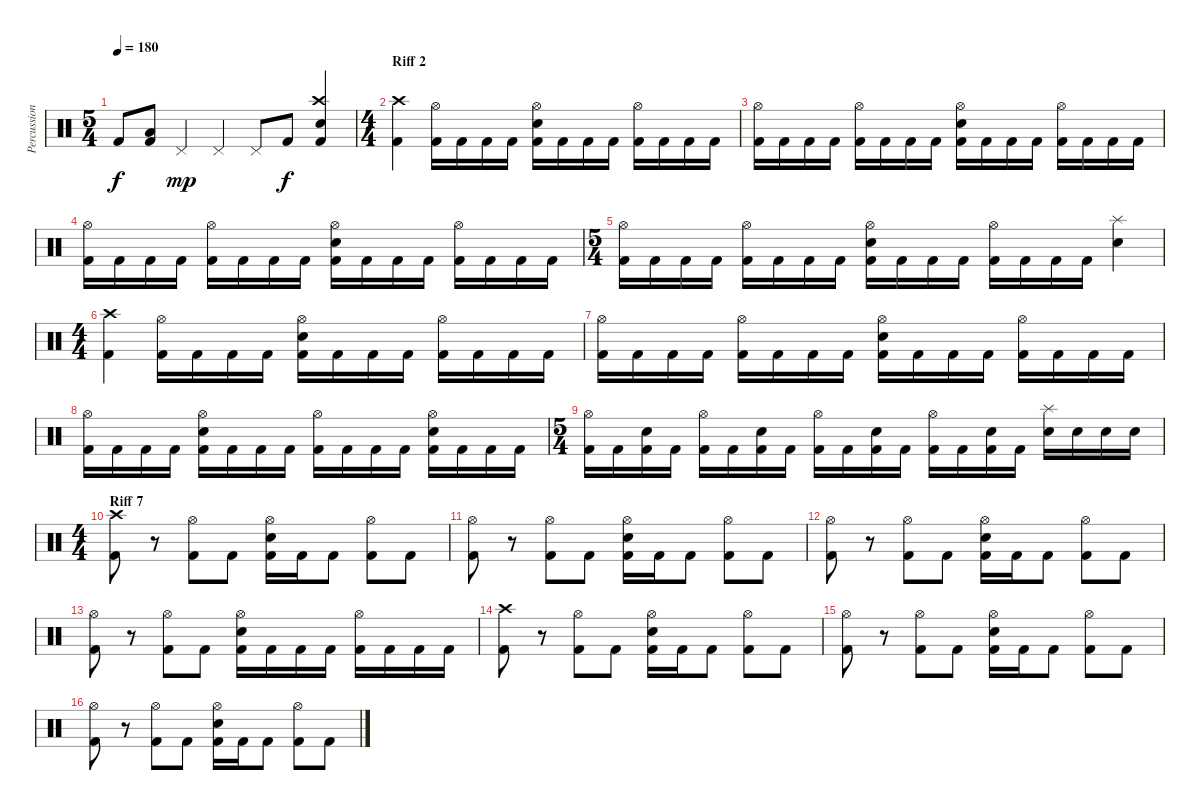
\track ("Percussion" "Percussion") {instrument percussion}
\staff {score}
\articulation defaults
\ts (5 4)
\tempo 180
\clef neutral
\ks c "Kick (hit) 2".8{dy f}
("Low Floor Tom (hit)" "Kick (hit) 2").8 "Pedal Hi-Hat (hit)".4{dy mp} "Pedal Hi-Hat (hit)".4 "Pedal Hi-Hat (hit)".8 "Kick (hit) 2".8{dy f} ("Crash high (hit)" "Electric Snare (hit)" "Kick (hit) 2").4 |
\ts (4 4)
\section ("" "Riff 2")
("Crash high (hit)" "Kick (hit) 2").4 ("Hi-Hat (open)" "Kick (hit) 2").16 "Kick (hit) 2".16 "Kick (hit) 2".16 "Kick (hit) 2".16 ("Hi-Hat (open)" "Electric Snare (hit)" "Kick (hit) 2").16 "Kick (hit) 2".16 "Kick (hit) 2".16 "Kick (hit) 2".16 ("Hi-Hat (open)" "Kick (hit) 2").16 "Kick (hit) 2".16 "Kick (hit) 2".16 "Kick (hit) 2".16 |
("Hi-Hat (open)" "Kick (hit) 2").16 "Kick (hit) 2".16 "Kick (hit) 2".16 "Kick (hit) 2".16 ("Hi-Hat (open)" "Kick (hit) 2").16 "Kick (hit) 2".16 "Kick (hit) 2".16 "Kick (hit) 2".16 ("Hi-Hat (open)" "Electric Snare (hit)" "Kick (hit) 2").16 "Kick (hit) 2".16 "Kick (hit) 2".16 "Kick (hit) 2".16 ("Hi-Hat (open)" "Kick (hit) 2").16 "Kick (hit) 2".16 "Kick (hit) 2".16 "Kick (hit) 2".16 |
("Hi-Hat (open)" "Kick (hit) 2").16 "Kick (hit) 2".16 "Kick (hit) 2".16 "Kick (hit) 2".16 ("Hi-Hat (open)" "Kick (hit) 2").16 "Kick (hit) 2".16 "Kick (hit) 2".16 "Kick (hit) 2".16 ("Hi-Hat (open)" "Electric Snare (hit)" "Kick (hit) 2").16 "Kick (hit) 2".16 "Kick (hit) 2".16 "Kick (hit) 2".16 ("Hi-Hat (open)" "Kick (hit) 2").16 "Kick (hit) 2".16 "Kick (hit) 2".16 "Kick (hit) 2".16 |
\ts (5 4)
("Hi-Hat (open)" "Kick (hit) 2").16 "Kick (hit) 2".16 "Kick (hit) 2".16 "Kick (hit) 2".16 ("Hi-Hat (open)" "Kick (hit) 2").16 "Kick (hit) 2".16 "Kick (hit) 2".16 "Kick (hit) 2".16 ("Hi-Hat (open)" "Electric Snare (hit)" "Kick (hit) 2").16 "Kick (hit) 2".16 "Kick (hit) 2".16 "Kick (hit) 2".16 ("Hi-Hat (open)" "Kick (hit) 2").16 "Kick (hit) 2".16 "Kick (hit) 2".16 "Kick (hit) 2".16 ("Splash (hit)" "Electric Snare (hit)").4 |
\ts (4 4)
("Crash high (hit)" "Kick (hit) 2").4 ("Hi-Hat (open)" "Kick (hit) 2").16 "Kick (hit) 2".16 "Kick (hit) 2".16 "Kick (hit) 2".16 ("Hi-Hat (open)" "Electric Snare (hit)" "Kick (hit) 2").16 "Kick (hit) 2".16 "Kick (hit) 2".16 "Kick (hit) 2".16 ("Hi-Hat (open)" "Kick (hit) 2").16 "Kick (hit) 2".16 "Kick (hit) 2".16 "Kick (hit) 2".16 |
("Hi-Hat (open)" "Kick (hit) 2").16 "Kick (hit) 2".16 "Kick (hit) 2".16 "Kick (hit) 2".16 ("Hi-Hat (open)" "Kick (hit) 2").16 "Kick (hit) 2".16 "Kick (hit) 2".16 "Kick (hit) 2".16 ("Hi-Hat (open)" "Electric Snare (hit)" "Kick (hit) 2").16 "Kick (hit) 2".16 "Kick (hit) 2".16 "Kick (hit) 2".16 ("Hi-Hat (open)" "Kick (hit) 2").16 "Kick (hit) 2".16 "Kick (hit) 2".16 "Kick (hit) 2".16 |
("Hi-Hat (open)" "Kick (hit) 2").16 "Kick (hit) 2".16 "Kick (hit) 2".16 "Kick (hit) 2".16 ("Hi-Hat (open)" "Electric Snare (hit)" "Kick (hit) 2").16 "Kick (hit) 2".16 "Kick (hit) 2".16 "Kick (hit) 2".16 ("Hi-Hat (open)" "Kick (hit) 2").16 "Kick (hit) 2".16 "Kick (hit) 2".16 "Kick (hit) 2".16 ("Hi-Hat (open)" "Electric Snare (hit)" "Kick (hit) 2").16 "Kick (hit) 2".16 "Kick (hit) 2".16 "Kick (hit) 2".16 |
\ts (5 4)
("Hi-Hat (open)" "Kick (hit) 2").16 "Kick (hit) 2".16 ("Electric Snare (hit)" "Kick (hit) 2").16 "Kick (hit) 2".16 ("Hi-Hat (open)" "Kick (hit) 2").16 "Kick (hit) 2".16 ("Electric Snare (hit)" "Kick (hit) 2").16 "Kick (hit) 2".16 ("Hi-Hat (open)" "Kick (hit) 2").16 "Kick (hit) 2".16 ("Electric Snare (hit)" "Kick (hit) 2").16 "Kick (hit) 2".16 ("Hi-Hat (open)" "Kick (hit) 2").16 "Kick (hit) 2".16 ("Electric Snare (hit)" "Kick (hit) 2").16 "Kick (hit) 2".16 ("Splash (hit)" "Electric Snare (hit)").16 "Electric Snare (hit)".16 "Electric Snare (hit)".16 "Electric Snare (hit)".16 |
\ts (4 4)
\section ("" "Riff 7")
("Crash high (hit)" "Kick (hit) 2").8 r.8 ("Hi-Hat (open)" "Kick (hit) 2").8 "Kick (hit) 2".8 ("Hi-Hat (open)" "Electric Snare (hit)" "Kick (hit) 2").16 "Kick (hit) 2".16 "Kick (hit) 2".8 ("Hi-Hat (open)" "Kick (hit) 2").8 "Kick (hit) 2".8 |
("Hi-Hat (open)" "Kick (hit) 2").8 r.8 ("Hi-Hat (open)" "Kick (hit) 2").8 "Kick (hit) 2".8 ("Hi-Hat (open)" "Electric Snare (hit)" "Kick (hit) 2").16 "Kick (hit) 2".16 "Kick (hit) 2".8 ("Hi-Hat (open)" "Kick (hit) 2").8 "Kick (hit) 2".8 |
("Hi-Hat (open)" "Kick (hit) 2").8 r.8 ("Hi-Hat (open)" "Kick (hit) 2").8 "Kick (hit) 2".8 ("Hi-Hat (open)" "Electric Snare (hit)" "Kick (hit) 2").16 "Kick (hit) 2".16 "Kick (hit) 2".8 ("Hi-Hat (open)" "Kick (hit) 2").8 "Kick (hit) 2".8 |
("Hi-Hat (open)" "Kick (hit) 2").8 r.8 ("Hi-Hat (open)" "Kick (hit) 2").8 "Kick (hit) 2".8 ("Hi-Hat (open)" "Electric Snare (hit)" "Kick (hit) 2").16 "Kick (hit) 2".16 "Kick (hit) 2".16 "Kick (hit) 2".16 ("Hi-Hat (open)" "Kick (hit) 2").16 "Kick (hit) 2".16 "Kick (hit) 2".16 "Kick (hit) 2".16 |
("Crash high (hit)" "Kick (hit) 2").8 r.8 ("Hi-Hat (open)" "Kick (hit) 2").8 "Kick (hit) 2".8 ("Hi-Hat (open)" "Electric Snare (hit)" "Kick (hit) 2").16 "Kick (hit) 2".16 "Kick (hit) 2".8 ("Hi-Hat (open)" "Kick (hit) 2").8 "Kick (hit) 2".8 |
("Hi-Hat (open)" "Kick (hit) 2").8 r.8 ("Hi-Hat (open)" "Kick (hit) 2").8 "Kick (hit) 2".8 ("Hi-Hat (open)" "Electric Snare (hit)" "Kick (hit) 2").16 "Kick (hit) 2".16 "Kick (hit) 2".8 ("Hi-Hat (open)" "Kick (hit) 2").8 "Kick (hit) 2".8 |
("Hi-Hat (open)" "Kick (hit) 2").8 r.8 ("Hi-Hat (open)" "Kick (hit) 2").8 "Kick (hit) 2".8 ("Hi-Hat (open)" "Electric Snare (hit)" "Kick (hit) 2").16 "Kick (hit) 2".16 "Kick (hit) 2".8 ("Hi-Hat (open)" "Kick (hit) 2").8 "Kick (hit) 2".8
